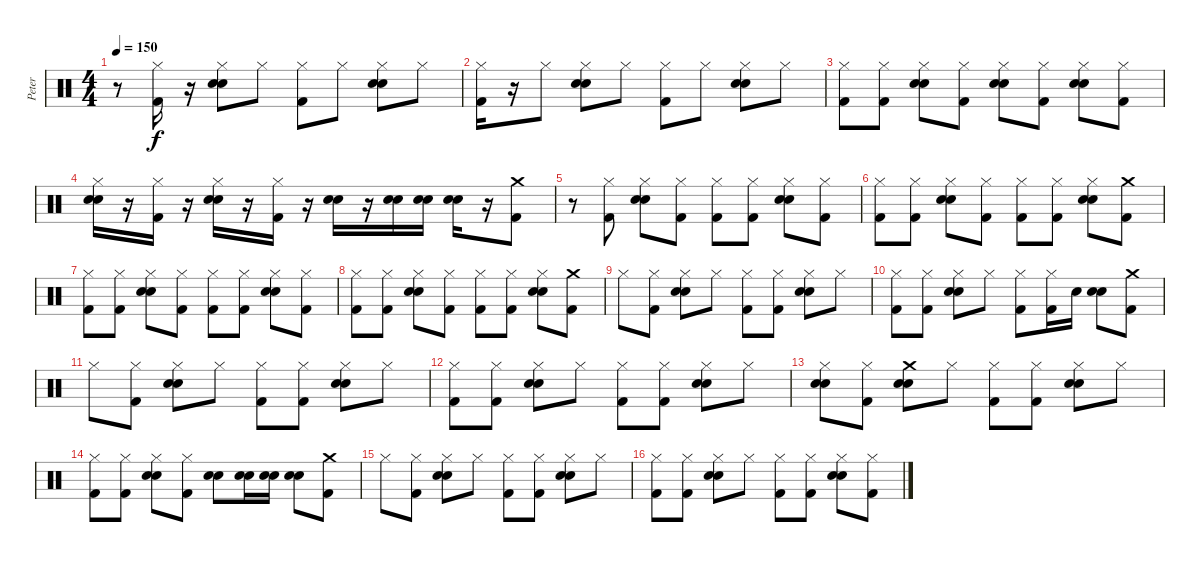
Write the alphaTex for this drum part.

\track ("Peter" "Peter") {instrument percussion}
\staff {score}
\articulation defaults
\ts (4 4)
\tempo 150
\clef neutral
\ks c
r.8{dy f} ("Hi-Hat (closed)" "Kick (hit) 2").16 r.16 ("Hi-Hat (closed)" "Electric Snare (hit)" "Snare (hit) 2").8 "Hi-Hat (closed)".8 ("Hi-Hat (closed)" "Kick (hit) 2").8 "Hi-Hat (closed)".8 ("Hi-Hat (closed)" "Electric Snare (hit)" "Snare (hit) 2").8 "Hi-Hat (closed)".8 |
("Hi-Hat (closed)" "Kick (hit) 2").16 r.16 "Hi-Hat (closed)".8 ("Electric Snare (hit)" "Snare (hit) 2" "Hi-Hat (closed)").8 "Hi-Hat (closed)".8 ("Kick (hit) 2" "Hi-Hat (closed)").8 "Hi-Hat (closed)".8 ("Electric Snare (hit)" "Snare (hit) 2" "Hi-Hat (closed)").8 "Hi-Hat (closed)".8 |
("Hi-Hat (closed)" "Kick (hit) 2").8 ("Hi-Hat (closed)" "Kick (hit) 2").8 ("Hi-Hat (closed)" "Electric Snare (hit)" "Snare (hit) 2").8 ("Hi-Hat (closed)" "Kick (hit) 2").8 ("Hi-Hat (closed)" "Electric Snare (hit)" "Snare (hit) 2").8 ("Hi-Hat (closed)" "Kick (hit) 2").8 ("Hi-Hat (closed)" "Electric Snare (hit)" "Snare (hit) 2").8 ("Hi-Hat (closed)" "Kick (hit) 2").8 |
("Hi-Hat (closed)" "Snare (hit) 2" "Electric Snare (hit)").16 r.16 ("Hi-Hat (closed)" "Kick (hit) 2").16 r.16 ("Hi-Hat (closed)" "Snare (hit) 2" "Electric Snare (hit)").16 r.16 ("Hi-Hat (closed)" "Kick (hit) 2").16 r.16 ("Snare (hit) 2" "Electric Snare (hit)").16 r.16 ("Snare (hit) 2" "Electric Snare (hit)").16 ("Snare (hit) 2" "Electric Snare (hit)").16 ("Snare (hit) 2" "Electric Snare (hit)").16 r.16 ("Crash medium (hit)" "Kick (hit) 2").8 |
r.8 ("Hi-Hat (closed)" "Kick (hit) 2").8 ("Hi-Hat (closed)" "Electric Snare (hit)" "Snare (hit) 2").8 ("Hi-Hat (closed)" "Kick (hit) 2").8 ("Hi-Hat (closed)" "Kick (hit) 2").8 ("Hi-Hat (closed)" "Kick (hit) 2").8 ("Hi-Hat (closed)" "Electric Snare (hit)" "Snare (hit) 2").8 ("Hi-Hat (closed)" "Kick (hit) 2").8 |
("Hi-Hat (closed)" "Kick (hit) 2").8 ("Hi-Hat (closed)" "Kick (hit) 2").8 ("Hi-Hat (closed)" "Electric Snare (hit)" "Snare (hit) 2").8 ("Hi-Hat (closed)" "Kick (hit) 2").8 ("Hi-Hat (closed)" "Kick (hit) 2").8 ("Hi-Hat (closed)" "Kick (hit) 2").8 ("Hi-Hat (closed)" "Snare (hit) 2" "Electric Snare (hit)").8 ("Crash medium (hit)" "Kick (hit) 2").8 |
("Hi-Hat (closed)" "Kick (hit) 2").8 ("Hi-Hat (closed)" "Kick (hit) 2").8 ("Hi-Hat (closed)" "Electric Snare (hit)" "Snare (hit) 2").8 ("Hi-Hat (closed)" "Kick (hit) 2").8 ("Hi-Hat (closed)" "Kick (hit) 2").8 ("Hi-Hat (closed)" "Kick (hit) 2").8 ("Snare (hit) 2" "Hi-Hat (closed)" "Electric Snare (hit)").8 ("Hi-Hat (closed)" "Kick (hit) 2").8 |
("Hi-Hat (closed)" "Kick (hit) 2").8 ("Hi-Hat (closed)" "Kick (hit) 2").8 ("Hi-Hat (closed)" "Electric Snare (hit)" "Snare (hit) 2").8 ("Hi-Hat (closed)" "Kick (hit) 2").8 ("Hi-Hat (closed)" "Kick (hit) 2").8 ("Hi-Hat (closed)" "Kick (hit) 2").8 ("Hi-Hat (closed)" "Electric Snare (hit)" "Snare (hit) 2").8 ("Crash medium (hit)" "Kick (hit) 2").8 |
"Hi-Hat (closed)".8 ("Hi-Hat (closed)" "Kick (hit) 2").8 ("Hi-Hat (closed)" "Snare (hit) 2" "Electric Snare (hit)").8 "Hi-Hat (closed)".8 ("Hi-Hat (closed)" "Kick (hit) 2").8 ("Hi-Hat (closed)" "Kick (hit) 2").8 ("Hi-Hat (closed)" "Snare (hit) 2" "Electric Snare (hit)").8 "Hi-Hat (closed)".8 |
("Hi-Hat (closed)" "Kick (hit) 2").8 ("Hi-Hat (closed)" "Kick (hit) 2").8 ("Hi-Hat (closed)" "Electric Snare (hit)" "Snare (hit) 2").8 "Hi-Hat (closed)".8 ("Hi-Hat (closed)" "Kick (hit) 2").8 ("Hi-Hat (closed)" "Kick (hit) 2").16 "Snare (hit) 2".16 ("Electric Snare (hit)" "Snare (hit) 2").8 ("Crash medium (hit)" "Kick (hit) 2").8 |
"Hi-Hat (closed)".8 ("Hi-Hat (closed)" "Kick (hit) 2").8 ("Hi-Hat (closed)" "Snare (hit) 2" "Electric Snare (hit)").8 "Hi-Hat (closed)".8 ("Hi-Hat (closed)" "Kick (hit) 2").8 ("Hi-Hat (closed)" "Kick (hit) 2").8 ("Hi-Hat (closed)" "Snare (hit) 2" "Electric Snare (hit)").8 "Hi-Hat (closed)".8 |
("Kick (hit) 2" "Hi-Hat (closed)").8 ("Hi-Hat (closed)" "Kick (hit) 2").8 ("Hi-Hat (closed)" "Snare (hit) 2" "Electric Snare (hit)").8 "Hi-Hat (closed)".8 ("Hi-Hat (closed)" "Kick (hit) 2").8 ("Hi-Hat (closed)" "Kick (hit) 2").8 ("Hi-Hat (closed)" "Snare (hit) 2" "Electric Snare (hit)").8 "Hi-Hat (closed)".8 |
("Snare (hit) 2" "Electric Snare (hit)" "Hi-Hat (closed)").8 ("Hi-Hat (closed)" "Kick (hit) 2").8 ("Crash medium (hit)" "Snare (hit) 2" "Electric Snare (hit)").8 "Hi-Hat (closed)".8 ("Hi-Hat (closed)" "Kick (hit) 2").8 ("Hi-Hat (closed)" "Kick (hit) 2").8 ("Hi-Hat (closed)" "Snare (hit) 2" "Electric Snare (hit)").8 "Hi-Hat (closed)".8 |
("Kick (hit) 2" "Hi-Hat (closed)").8 ("Hi-Hat (closed)" "Kick (hit) 2").8 ("Hi-Hat (closed)" "Snare (hit) 2" "Electric Snare (hit)").8 ("Kick (hit) 2" "Hi-Hat (closed)").8 ("Snare (hit) 2" "Electric Snare (hit)").8 ("Electric Snare (hit)" "Snare (hit) 2").16 ("Electric Snare (hit)" "Snare (hit) 2").16 ("Snare (hit) 2" "Electric Snare (hit)").8 ("Kick (hit) 2" "Crash medium (hit)").8 |
"Hi-Hat (closed)".8 ("Hi-Hat (closed)" "Kick (hit) 2").8 ("Hi-Hat (closed)" "Snare (hit) 2" "Electric Snare (hit)").8 "Hi-Hat (closed)".8 ("Hi-Hat (closed)" "Kick (hit) 2").8 ("Hi-Hat (closed)" "Kick (hit) 2").8 ("Hi-Hat (closed)" "Snare (hit) 2" "Electric Snare (hit)").8 "Hi-Hat (closed)".8 |
("Kick (hit) 2" "Hi-Hat (closed)").8 ("Hi-Hat (closed)" "Kick (hit) 2").8 ("Hi-Hat (closed)" "Snare (hit) 2" "Electric Snare (hit)").8 "Hi-Hat (closed)".8 ("Hi-Hat (closed)" "Kick (hit) 2").8 ("Hi-Hat (closed)" "Kick (hit) 2").8 ("Hi-Hat (closed)" "Snare (hit) 2" "Electric Snare (hit)").8 ("Kick (hit) 2" "Hi-Hat (closed)").8
